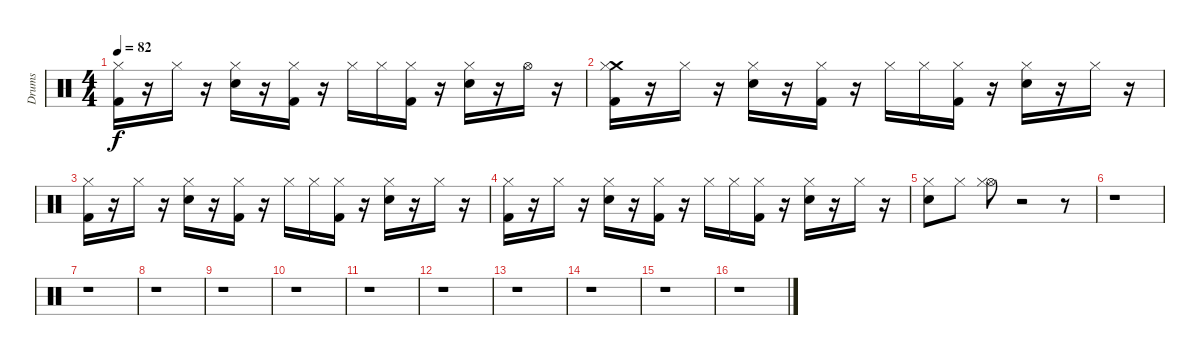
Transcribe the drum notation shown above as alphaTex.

\track ("Drums" "Drums") {instrument percussion}
\staff {score}
\articulation defaults
\ts (4 4)
\tempo 82
\clef neutral
\ks c
("Hi-Hat (closed)" "Kick (hit) 2").16{dy f} r.16 "Hi-Hat (closed)".16 r.16 ("Electric Snare (hit)" "Hi-Hat (closed)").16 r.16 ("Kick (hit) 2" "Hi-Hat (closed)").16 r.16 "Hi-Hat (closed)".16 "Hi-Hat (closed)".16 ("Kick (hit) 2" "Hi-Hat (closed)").16 r.16 ("Electric Snare (hit)" "Hi-Hat (closed)").16 r.16 "Hi-Hat (open)".16 r.16 |
("Crash medium (hit)" "Hi-Hat (closed)" "Kick (hit) 2").16 r.16 "Hi-Hat (closed)".16 r.16 ("Electric Snare (hit)" "Hi-Hat (closed)").16 r.16 ("Hi-Hat (closed)" "Kick (hit) 2").16 r.16 "Hi-Hat (closed)".16 "Hi-Hat (closed)".16 ("Kick (hit) 2" "Hi-Hat (closed)").16 r.16 ("Hi-Hat (closed)" "Electric Snare (hit)").16 r.16 "Hi-Hat (closed)".16 r.16 |
("Kick (hit) 2" "Hi-Hat (closed)").16 r.16 "Hi-Hat (closed)".16 r.16 ("Electric Snare (hit)" "Hi-Hat (closed)").16 r.16 ("Kick (hit) 2" "Hi-Hat (closed)").16 r.16 "Hi-Hat (closed)".16 "Hi-Hat (closed)".16 ("Hi-Hat (closed)" "Kick (hit) 2").16 r.16 ("Electric Snare (hit)" "Hi-Hat (closed)").16 r.16 "Hi-Hat (closed)".16 r.16 |
("Hi-Hat (closed)" "Kick (hit) 2").16 r.16 "Hi-Hat (closed)".16 r.16 ("Electric Snare (hit)" "Hi-Hat (closed)").16 r.16 ("Hi-Hat (closed)" "Kick (hit) 2").16 r.16 "Hi-Hat (closed)".16 "Hi-Hat (closed)".16 ("Kick (hit) 2" "Hi-Hat (closed)").16 r.16 ("Hi-Hat (closed)" "Electric Snare (hit)").16 r.16 "Hi-Hat (closed)".16 r.16 |
("Electric Snare (hit)" "Hi-Hat (closed)").8 "Hi-Hat (closed)".8 ("Hi-Hat (open)" "Hi-Hat (closed)").8 r.2 r.8 |
r.1 |
r.1 |
r.1 |
r.1 |
r.1 |
r.1 |
r.1 |
r.1 |
r.1 |
r.1 |
r.1
